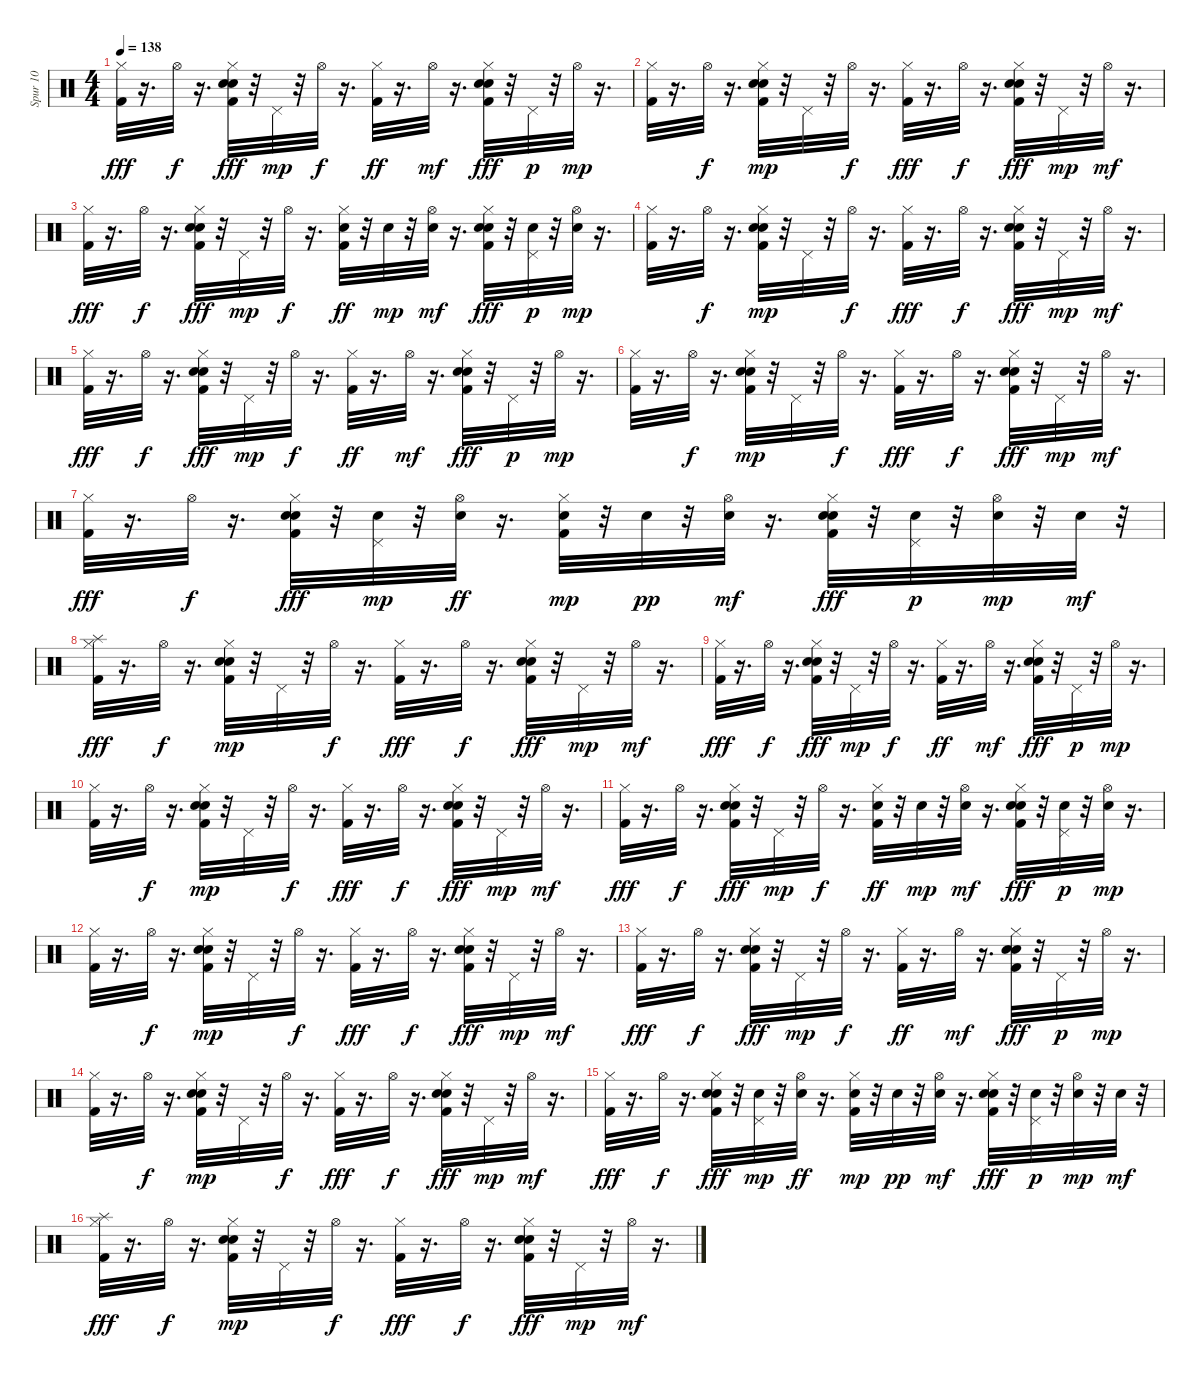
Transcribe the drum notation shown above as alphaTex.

\track ("Spur 10" "Spur 10") {instrument percussion}
\staff {score}
\articulation defaults
\ts (4 4)
\tempo 138
\clef neutral
\ks c
("Kick (hit) 2" "Hi-Hat (closed)").32{dy fff} r.16{d} "Hi-Hat (open)".32{dy f} r.16{d} ("Kick (hit) 2" "Snare (hit) 2" "Hand Clap (hit)" "Hi-Hat (closed)").32{dy fff} r.32 "Pedal Hi-Hat (hit)".32{dy mp} r.32 "Hi-Hat (open)".32{dy f} r.16{d} ("Kick (hit) 2" "Hi-Hat (closed)").32{dy ff} r.16{d} "Hi-Hat (open)".32{dy mf} r.16{d} ("Kick (hit) 2" "Snare (hit) 2" "Hand Clap (hit)" "Hi-Hat (closed)").32{dy fff} r.32 "Pedal Hi-Hat (hit)".32{dy p} r.32 "Hi-Hat (open)".32{dy mp} r.16{d} |
("Kick (hit) 2" "Hi-Hat (closed)").32 r.16{d} "Hi-Hat (open)".32{dy f} r.16{d} ("Kick (hit) 2" "Snare (hit) 2" "Hand Clap (hit)" "Hi-Hat (closed)").32{dy mp} r.32 "Pedal Hi-Hat (hit)".32 r.32 "Hi-Hat (open)".32{dy f} r.16{d} ("Kick (hit) 2" "Hi-Hat (closed)").32{dy fff} r.16{d} "Hi-Hat (open)".32{dy f} r.16{d} ("Kick (hit) 2" "Snare (hit) 2" "Hand Clap (hit)" "Hi-Hat (closed)").32{dy fff} r.32 "Pedal Hi-Hat (hit)".32{dy mp} r.32 "Hi-Hat (open)".32{dy mf} r.16{d} |
("Kick (hit) 2" "Hi-Hat (closed)").32{dy fff} r.16{d} "Hi-Hat (open)".32{dy f} r.16{d} ("Kick (hit) 2" "Snare (hit) 2" "Hand Clap (hit)" "Hi-Hat (closed)").32{dy fff} r.32 "Pedal Hi-Hat (hit)".32{dy mp} r.32 "Hi-Hat (open)".32{dy f} r.16{d} ("Kick (hit) 2" "Snare (hit) 2" "Hi-Hat (closed)").32{dy ff} r.32 "Snare (hit) 2".32{dy mp} r.32 ("Snare (hit) 2" "Hi-Hat (open)").32{dy mf} r.16{d} ("Kick (hit) 2" "Snare (hit) 2" "Hand Clap (hit)" "Hi-Hat (closed)").32{dy fff} r.32 ("Snare (hit) 2" "Pedal Hi-Hat (hit)").32{dy p} r.32 ("Snare (hit) 2" "Hi-Hat (open)").32{dy mp} r.16{d} |
("Kick (hit) 2" "Hi-Hat (closed)").32 r.16{d} "Hi-Hat (open)".32{dy f} r.16{d} ("Kick (hit) 2" "Snare (hit) 2" "Hand Clap (hit)" "Hi-Hat (closed)").32{dy mp} r.32 "Pedal Hi-Hat (hit)".32 r.32 "Hi-Hat (open)".32{dy f} r.16{d} ("Kick (hit) 2" "Hi-Hat (closed)").32{dy fff} r.16{d} "Hi-Hat (open)".32{dy f} r.16{d} ("Kick (hit) 2" "Snare (hit) 2" "Hand Clap (hit)" "Hi-Hat (closed)").32{dy fff} r.32 "Pedal Hi-Hat (hit)".32{dy mp} r.32 "Hi-Hat (open)".32{dy mf} r.16{d} |
("Kick (hit) 2" "Hi-Hat (closed)").32{dy fff} r.16{d} "Hi-Hat (open)".32{dy f} r.16{d} ("Kick (hit) 2" "Snare (hit) 2" "Hand Clap (hit)" "Hi-Hat (closed)").32{dy fff} r.32 "Pedal Hi-Hat (hit)".32{dy mp} r.32 "Hi-Hat (open)".32{dy f} r.16{d} ("Kick (hit) 2" "Hi-Hat (closed)").32{dy ff} r.16{d} "Hi-Hat (open)".32{dy mf} r.16{d} ("Kick (hit) 2" "Snare (hit) 2" "Hand Clap (hit)" "Hi-Hat (closed)").32{dy fff} r.32 "Pedal Hi-Hat (hit)".32{dy p} r.32 "Hi-Hat (open)".32{dy mp} r.16{d} |
("Kick (hit) 2" "Hi-Hat (closed)").32 r.16{d} "Hi-Hat (open)".32{dy f} r.16{d} ("Kick (hit) 2" "Snare (hit) 2" "Hand Clap (hit)" "Hi-Hat (closed)").32{dy mp} r.32 "Pedal Hi-Hat (hit)".32 r.32 "Hi-Hat (open)".32{dy f} r.16{d} ("Kick (hit) 2" "Hi-Hat (closed)").32{dy fff} r.16{d} "Hi-Hat (open)".32{dy f} r.16{d} ("Kick (hit) 2" "Snare (hit) 2" "Hand Clap (hit)" "Hi-Hat (closed)").32{dy fff} r.32 "Pedal Hi-Hat (hit)".32{dy mp} r.32 "Hi-Hat (open)".32{dy mf} r.16{d} |
("Kick (hit) 2" "Hi-Hat (closed)").32{dy fff} r.16{d} "Hi-Hat (open)".32{dy f} r.16{d} ("Kick (hit) 2" "Snare (hit) 2" "Hand Clap (hit)" "Hi-Hat (closed)").32{dy fff} r.32 ("Snare (hit) 2" "Pedal Hi-Hat (hit)").32{dy mp} r.32 ("Snare (hit) 2" "Hi-Hat (open)").32{dy ff} r.16{d} ("Kick (hit) 2" "Snare (hit) 2" "Hi-Hat (closed)").32{dy mp} r.32 "Snare (hit) 2".32{dy pp} r.32 ("Snare (hit) 2" "Hi-Hat (open)").32{dy mf} r.16{d} ("Kick (hit) 2" "Snare (hit) 2" "Hand Clap (hit)" "Hi-Hat (closed)").32{dy fff} r.32 ("Snare (hit) 2" "Pedal Hi-Hat (hit)").32{dy p} r.32 ("Snare (hit) 2" "Hi-Hat (open)").32{dy mp} r.32 "Snare (hit) 2".32{dy mf} r.32 |
("Kick (hit) 2" "Hi-Hat (closed)" "Splash (hit)").32{dy fff} r.16{d} "Hi-Hat (open)".32{dy f} r.16{d} ("Kick (hit) 2" "Snare (hit) 2" "Hand Clap (hit)" "Hi-Hat (closed)").32{dy mp} r.32 "Pedal Hi-Hat (hit)".32 r.32 "Hi-Hat (open)".32{dy f} r.16{d} ("Kick (hit) 2" "Hi-Hat (closed)").32{dy fff} r.16{d} "Hi-Hat (open)".32{dy f} r.16{d} ("Kick (hit) 2" "Snare (hit) 2" "Hand Clap (hit)" "Hi-Hat (closed)").32{dy fff} r.32 "Pedal Hi-Hat (hit)".32{dy mp} r.32 "Hi-Hat (open)".32{dy mf} r.16{d} |
("Kick (hit) 2" "Hi-Hat (closed)").32{dy fff} r.16{d} "Hi-Hat (open)".32{dy f} r.16{d} ("Kick (hit) 2" "Snare (hit) 2" "Hand Clap (hit)" "Hi-Hat (closed)").32{dy fff} r.32 "Pedal Hi-Hat (hit)".32{dy mp} r.32 "Hi-Hat (open)".32{dy f} r.16{d} ("Kick (hit) 2" "Hi-Hat (closed)").32{dy ff} r.16{d} "Hi-Hat (open)".32{dy mf} r.16{d} ("Kick (hit) 2" "Snare (hit) 2" "Hand Clap (hit)" "Hi-Hat (closed)").32{dy fff} r.32 "Pedal Hi-Hat (hit)".32{dy p} r.32 "Hi-Hat (open)".32{dy mp} r.16{d} |
("Kick (hit) 2" "Hi-Hat (closed)").32 r.16{d} "Hi-Hat (open)".32{dy f} r.16{d} ("Kick (hit) 2" "Snare (hit) 2" "Hand Clap (hit)" "Hi-Hat (closed)").32{dy mp} r.32 "Pedal Hi-Hat (hit)".32 r.32 "Hi-Hat (open)".32{dy f} r.16{d} ("Kick (hit) 2" "Hi-Hat (closed)").32{dy fff} r.16{d} "Hi-Hat (open)".32{dy f} r.16{d} ("Kick (hit) 2" "Snare (hit) 2" "Hand Clap (hit)" "Hi-Hat (closed)").32{dy fff} r.32 "Pedal Hi-Hat (hit)".32{dy mp} r.32 "Hi-Hat (open)".32{dy mf} r.16{d} |
("Kick (hit) 2" "Hi-Hat (closed)").32{dy fff} r.16{d} "Hi-Hat (open)".32{dy f} r.16{d} ("Kick (hit) 2" "Snare (hit) 2" "Hand Clap (hit)" "Hi-Hat (closed)").32{dy fff} r.32 "Pedal Hi-Hat (hit)".32{dy mp} r.32 "Hi-Hat (open)".32{dy f} r.16{d} ("Kick (hit) 2" "Snare (hit) 2" "Hi-Hat (closed)").32{dy ff} r.32 "Snare (hit) 2".32{dy mp} r.32 ("Snare (hit) 2" "Hi-Hat (open)").32{dy mf} r.16{d} ("Kick (hit) 2" "Snare (hit) 2" "Hand Clap (hit)" "Hi-Hat (closed)").32{dy fff} r.32 ("Snare (hit) 2" "Pedal Hi-Hat (hit)").32{dy p} r.32 ("Snare (hit) 2" "Hi-Hat (open)").32{dy mp} r.16{d} |
("Kick (hit) 2" "Hi-Hat (closed)").32 r.16{d} "Hi-Hat (open)".32{dy f} r.16{d} ("Kick (hit) 2" "Snare (hit) 2" "Hand Clap (hit)" "Hi-Hat (closed)").32{dy mp} r.32 "Pedal Hi-Hat (hit)".32 r.32 "Hi-Hat (open)".32{dy f} r.16{d} ("Kick (hit) 2" "Hi-Hat (closed)").32{dy fff} r.16{d} "Hi-Hat (open)".32{dy f} r.16{d} ("Kick (hit) 2" "Snare (hit) 2" "Hand Clap (hit)" "Hi-Hat (closed)").32{dy fff} r.32 "Pedal Hi-Hat (hit)".32{dy mp} r.32 "Hi-Hat (open)".32{dy mf} r.16{d} |
("Kick (hit) 2" "Hi-Hat (closed)").32{dy fff} r.16{d} "Hi-Hat (open)".32{dy f} r.16{d} ("Kick (hit) 2" "Snare (hit) 2" "Hand Clap (hit)" "Hi-Hat (closed)").32{dy fff} r.32 "Pedal Hi-Hat (hit)".32{dy mp} r.32 "Hi-Hat (open)".32{dy f} r.16{d} ("Kick (hit) 2" "Hi-Hat (closed)").32{dy ff} r.16{d} "Hi-Hat (open)".32{dy mf} r.16{d} ("Kick (hit) 2" "Snare (hit) 2" "Hand Clap (hit)" "Hi-Hat (closed)").32{dy fff} r.32 "Pedal Hi-Hat (hit)".32{dy p} r.32 "Hi-Hat (open)".32{dy mp} r.16{d} |
("Kick (hit) 2" "Hi-Hat (closed)").32 r.16{d} "Hi-Hat (open)".32{dy f} r.16{d} ("Kick (hit) 2" "Snare (hit) 2" "Hand Clap (hit)" "Hi-Hat (closed)").32{dy mp} r.32 "Pedal Hi-Hat (hit)".32 r.32 "Hi-Hat (open)".32{dy f} r.16{d} ("Kick (hit) 2" "Hi-Hat (closed)").32{dy fff} r.16{d} "Hi-Hat (open)".32{dy f} r.16{d} ("Kick (hit) 2" "Snare (hit) 2" "Hand Clap (hit)" "Hi-Hat (closed)").32{dy fff} r.32 "Pedal Hi-Hat (hit)".32{dy mp} r.32 "Hi-Hat (open)".32{dy mf} r.16{d} |
("Kick (hit) 2" "Hi-Hat (closed)").32{dy fff} r.16{d} "Hi-Hat (open)".32{dy f} r.16{d} ("Kick (hit) 2" "Snare (hit) 2" "Hand Clap (hit)" "Hi-Hat (closed)").32{dy fff} r.32 ("Snare (hit) 2" "Pedal Hi-Hat (hit)").32{dy mp} r.32 ("Snare (hit) 2" "Hi-Hat (open)").32{dy ff} r.16{d} ("Kick (hit) 2" "Snare (hit) 2" "Hi-Hat (closed)").32{dy mp} r.32 "Snare (hit) 2".32{dy pp} r.32 ("Snare (hit) 2" "Hi-Hat (open)").32{dy mf} r.16{d} ("Kick (hit) 2" "Snare (hit) 2" "Hand Clap (hit)" "Hi-Hat (closed)").32{dy fff} r.32 ("Snare (hit) 2" "Pedal Hi-Hat (hit)").32{dy p} r.32 ("Snare (hit) 2" "Hi-Hat (open)").32{dy mp} r.32 "Snare (hit) 2".32{dy mf} r.32 |
("Kick (hit) 2" "Hi-Hat (closed)" "Splash (hit)").32{dy fff} r.16{d} "Hi-Hat (open)".32{dy f} r.16{d} ("Kick (hit) 2" "Snare (hit) 2" "Hand Clap (hit)" "Hi-Hat (closed)").32{dy mp} r.32 "Pedal Hi-Hat (hit)".32 r.32 "Hi-Hat (open)".32{dy f} r.16{d} ("Kick (hit) 2" "Hi-Hat (closed)").32{dy fff} r.16{d} "Hi-Hat (open)".32{dy f} r.16{d} ("Kick (hit) 2" "Snare (hit) 2" "Hand Clap (hit)" "Hi-Hat (closed)").32{dy fff} r.32 "Pedal Hi-Hat (hit)".32{dy mp} r.32 "Hi-Hat (open)".32{dy mf} r.16{d}
